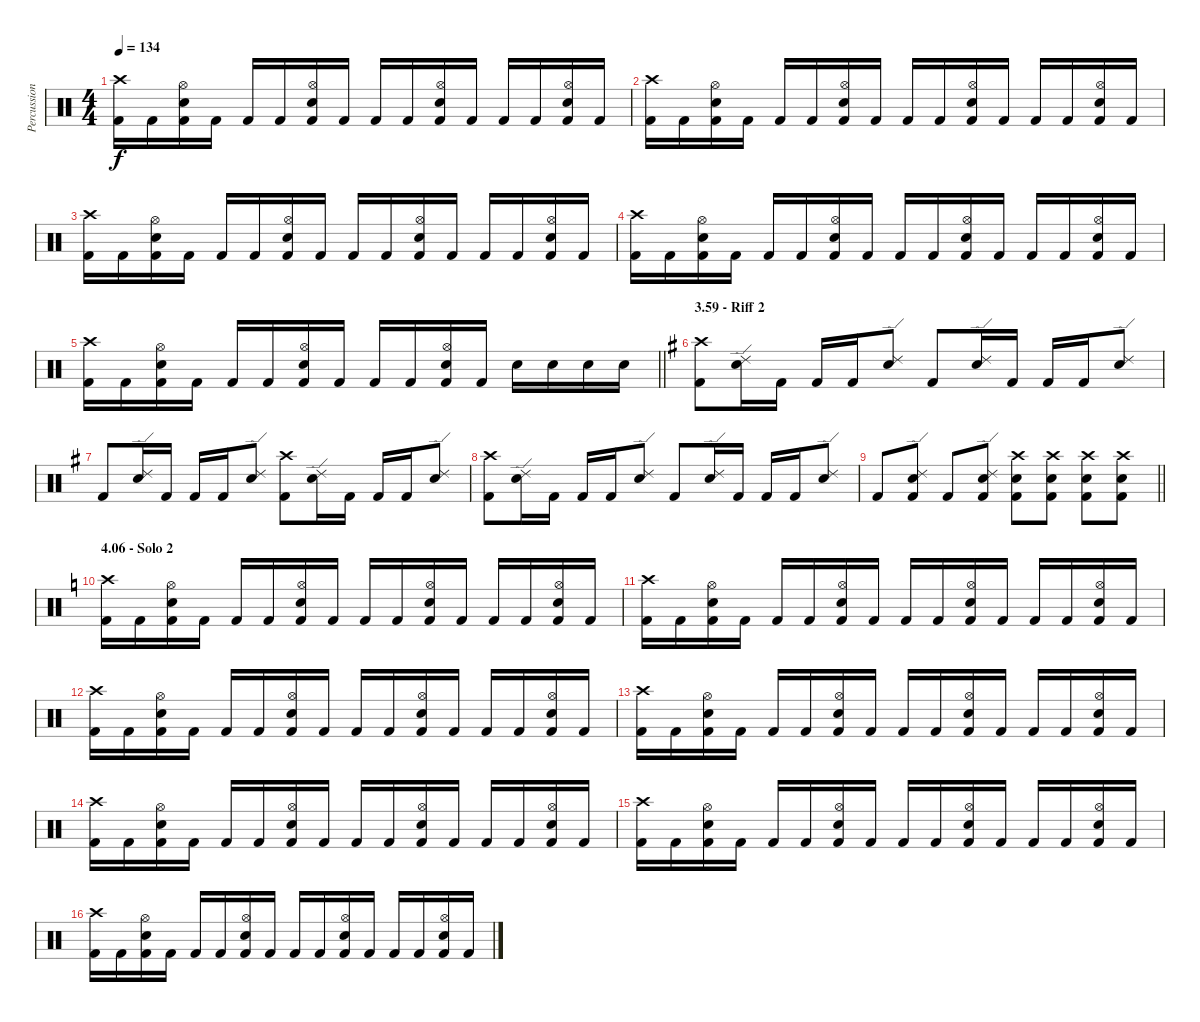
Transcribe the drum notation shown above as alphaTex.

\track ("Percussion" "Percussion") {instrument percussion}
\staff {score}
\articulation defaults
\ts (4 4)
\tempo 134
\clef neutral
\ks aminor
("Crash high (hit)" "Kick (hit) 2").16{dy f} "Kick (hit) 2".16 ("Hi-Hat (open)" "Electric Snare (hit)" "Kick (hit) 2").16 "Kick (hit) 2".16 "Kick (hit) 2".16 "Kick (hit) 2".16 ("Hi-Hat (open)" "Electric Snare (hit)" "Kick (hit) 2").16 "Kick (hit) 2".16 "Kick (hit) 2".16 "Kick (hit) 2".16 ("Hi-Hat (open)" "Electric Snare (hit)" "Kick (hit) 2").16 "Kick (hit) 2".16 "Kick (hit) 2".16 "Kick (hit) 2".16 ("Hi-Hat (open)" "Electric Snare (hit)" "Kick (hit) 2").16 "Kick (hit) 2".16 |
("Crash high (hit)" "Kick (hit) 2").16 "Kick (hit) 2".16 ("Hi-Hat (open)" "Electric Snare (hit)" "Kick (hit) 2").16 "Kick (hit) 2".16 "Kick (hit) 2".16 "Kick (hit) 2".16 ("Hi-Hat (open)" "Electric Snare (hit)" "Kick (hit) 2").16 "Kick (hit) 2".16 "Kick (hit) 2".16 "Kick (hit) 2".16 ("Hi-Hat (open)" "Electric Snare (hit)" "Kick (hit) 2").16 "Kick (hit) 2".16 "Kick (hit) 2".16 "Kick (hit) 2".16 ("Hi-Hat (open)" "Electric Snare (hit)" "Kick (hit) 2").16 "Kick (hit) 2".16 |
("Crash high (hit)" "Kick (hit) 2").16 "Kick (hit) 2".16 ("Hi-Hat (open)" "Electric Snare (hit)" "Kick (hit) 2").16 "Kick (hit) 2".16 "Kick (hit) 2".16 "Kick (hit) 2".16 ("Hi-Hat (open)" "Electric Snare (hit)" "Kick (hit) 2").16 "Kick (hit) 2".16 "Kick (hit) 2".16 "Kick (hit) 2".16 ("Hi-Hat (open)" "Electric Snare (hit)" "Kick (hit) 2").16 "Kick (hit) 2".16 "Kick (hit) 2".16 "Kick (hit) 2".16 ("Hi-Hat (open)" "Electric Snare (hit)" "Kick (hit) 2").16 "Kick (hit) 2".16 |
("Crash high (hit)" "Kick (hit) 2").16 "Kick (hit) 2".16 ("Hi-Hat (open)" "Electric Snare (hit)" "Kick (hit) 2").16 "Kick (hit) 2".16 "Kick (hit) 2".16 "Kick (hit) 2".16 ("Hi-Hat (open)" "Electric Snare (hit)" "Kick (hit) 2").16 "Kick (hit) 2".16 "Kick (hit) 2".16 "Kick (hit) 2".16 ("Hi-Hat (open)" "Electric Snare (hit)" "Kick (hit) 2").16 "Kick (hit) 2".16 "Kick (hit) 2".16 "Kick (hit) 2".16 ("Hi-Hat (open)" "Electric Snare (hit)" "Kick (hit) 2").16 "Kick (hit) 2".16 |
\barLineRight lightlight
("Crash high (hit)" "Kick (hit) 2").16 "Kick (hit) 2".16 ("Hi-Hat (open)" "Electric Snare (hit)" "Kick (hit) 2").16 "Kick (hit) 2".16 "Kick (hit) 2".16 "Kick (hit) 2".16 ("Hi-Hat (open)" "Electric Snare (hit)" "Kick (hit) 2").16 "Kick (hit) 2".16 "Kick (hit) 2".16 "Kick (hit) 2".16 ("Hi-Hat (open)" "Electric Snare (hit)" "Kick (hit) 2").16 "Kick (hit) 2".16 "Electric Snare (hit)".16 "Electric Snare (hit)".16 "Electric Snare (hit)".16 "Electric Snare (hit)".16 |
\section ("" "3.59 - Riff 2")
\ks eminor
("Crash high (hit)" "Kick (hit) 2").8 ("Ride (edge) 2" "Electric Snare (hit)").16 "Kick (hit) 2".16 "Kick (hit) 2".16 "Kick (hit) 2".16 ("Ride (edge) 2" "Electric Snare (hit)").8 "Kick (hit) 2".8 ("Ride (edge) 2" "Electric Snare (hit)").16 "Kick (hit) 2".16 "Kick (hit) 2".16 "Kick (hit) 2".16 ("Ride (edge) 2" "Electric Snare (hit)").8 |
"Kick (hit) 2".8 ("Ride (edge) 2" "Electric Snare (hit)").16 "Kick (hit) 2".16 "Kick (hit) 2".16 "Kick (hit) 2".16 ("Ride (edge) 2" "Electric Snare (hit)").8 ("Crash high (hit)" "Kick (hit) 2").8 ("Ride (edge) 2" "Electric Snare (hit)").16 "Kick (hit) 2".16 "Kick (hit) 2".16 "Kick (hit) 2".16 ("Ride (edge) 2" "Electric Snare (hit)").8 |
("Crash high (hit)" "Kick (hit) 2").8 ("Ride (edge) 2" "Electric Snare (hit)").16 "Kick (hit) 2".16 "Kick (hit) 2".16 "Kick (hit) 2".16 ("Ride (edge) 2" "Electric Snare (hit)").8 "Kick (hit) 2".8 ("Ride (edge) 2" "Electric Snare (hit)").16 "Kick (hit) 2".16 "Kick (hit) 2".16 "Kick (hit) 2".16 ("Ride (edge) 2" "Electric Snare (hit)").8 |
\barLineRight lightlight "Kick (hit) 2".8
("Ride (edge) 2" "Electric Snare (hit)" "Kick (hit) 2").8 "Kick (hit) 2".8 ("Ride (edge) 2" "Electric Snare (hit)" "Kick (hit) 2").8 ("Crash high (hit)" "Electric Snare (hit)" "Kick (hit) 2").8 ("Crash high (hit)" "Electric Snare (hit)" "Kick (hit) 2").8 ("Crash high (hit)" "Electric Snare (hit)" "Kick (hit) 2").8 ("Crash high (hit)" "Electric Snare (hit)" "Kick (hit) 2").8 |
\section ("" "4.06 - Solo 2")
\ks aminor
("Crash high (hit)" "Kick (hit) 2").16 "Kick (hit) 2".16 ("Hi-Hat (open)" "Electric Snare (hit)" "Kick (hit) 2").16 "Kick (hit) 2".16 "Kick (hit) 2".16 "Kick (hit) 2".16 ("Hi-Hat (open)" "Electric Snare (hit)" "Kick (hit) 2").16 "Kick (hit) 2".16 "Kick (hit) 2".16 "Kick (hit) 2".16 ("Hi-Hat (open)" "Electric Snare (hit)" "Kick (hit) 2").16 "Kick (hit) 2".16 "Kick (hit) 2".16 "Kick (hit) 2".16 ("Hi-Hat (open)" "Electric Snare (hit)" "Kick (hit) 2").16 "Kick (hit) 2".16 |
("Crash high (hit)" "Kick (hit) 2").16 "Kick (hit) 2".16 ("Hi-Hat (open)" "Electric Snare (hit)" "Kick (hit) 2").16 "Kick (hit) 2".16 "Kick (hit) 2".16 "Kick (hit) 2".16 ("Hi-Hat (open)" "Electric Snare (hit)" "Kick (hit) 2").16 "Kick (hit) 2".16 "Kick (hit) 2".16 "Kick (hit) 2".16 ("Hi-Hat (open)" "Electric Snare (hit)" "Kick (hit) 2").16 "Kick (hit) 2".16 "Kick (hit) 2".16 "Kick (hit) 2".16 ("Hi-Hat (open)" "Electric Snare (hit)" "Kick (hit) 2").16 "Kick (hit) 2".16 |
("Crash high (hit)" "Kick (hit) 2").16 "Kick (hit) 2".16 ("Hi-Hat (open)" "Electric Snare (hit)" "Kick (hit) 2").16 "Kick (hit) 2".16 "Kick (hit) 2".16 "Kick (hit) 2".16 ("Hi-Hat (open)" "Electric Snare (hit)" "Kick (hit) 2").16 "Kick (hit) 2".16 "Kick (hit) 2".16 "Kick (hit) 2".16 ("Hi-Hat (open)" "Electric Snare (hit)" "Kick (hit) 2").16 "Kick (hit) 2".16 "Kick (hit) 2".16 "Kick (hit) 2".16 ("Hi-Hat (open)" "Electric Snare (hit)" "Kick (hit) 2").16 "Kick (hit) 2".16 |
("Crash high (hit)" "Kick (hit) 2").16 "Kick (hit) 2".16 ("Hi-Hat (open)" "Electric Snare (hit)" "Kick (hit) 2").16 "Kick (hit) 2".16 "Kick (hit) 2".16 "Kick (hit) 2".16 ("Hi-Hat (open)" "Electric Snare (hit)" "Kick (hit) 2").16 "Kick (hit) 2".16 "Kick (hit) 2".16 "Kick (hit) 2".16 ("Hi-Hat (open)" "Electric Snare (hit)" "Kick (hit) 2").16 "Kick (hit) 2".16 "Kick (hit) 2".16 "Kick (hit) 2".16 ("Hi-Hat (open)" "Electric Snare (hit)" "Kick (hit) 2").16 "Kick (hit) 2".16 |
("Crash high (hit)" "Kick (hit) 2").16 "Kick (hit) 2".16 ("Hi-Hat (open)" "Electric Snare (hit)" "Kick (hit) 2").16 "Kick (hit) 2".16 "Kick (hit) 2".16 "Kick (hit) 2".16 ("Hi-Hat (open)" "Electric Snare (hit)" "Kick (hit) 2").16 "Kick (hit) 2".16 "Kick (hit) 2".16 "Kick (hit) 2".16 ("Hi-Hat (open)" "Electric Snare (hit)" "Kick (hit) 2").16 "Kick (hit) 2".16 "Kick (hit) 2".16 "Kick (hit) 2".16 ("Hi-Hat (open)" "Electric Snare (hit)" "Kick (hit) 2").16 "Kick (hit) 2".16 |
("Crash high (hit)" "Kick (hit) 2").16 "Kick (hit) 2".16 ("Hi-Hat (open)" "Electric Snare (hit)" "Kick (hit) 2").16 "Kick (hit) 2".16 "Kick (hit) 2".16 "Kick (hit) 2".16 ("Hi-Hat (open)" "Electric Snare (hit)" "Kick (hit) 2").16 "Kick (hit) 2".16 "Kick (hit) 2".16 "Kick (hit) 2".16 ("Hi-Hat (open)" "Electric Snare (hit)" "Kick (hit) 2").16 "Kick (hit) 2".16 "Kick (hit) 2".16 "Kick (hit) 2".16 ("Hi-Hat (open)" "Electric Snare (hit)" "Kick (hit) 2").16 "Kick (hit) 2".16 |
("Crash high (hit)" "Kick (hit) 2").16 "Kick (hit) 2".16 ("Hi-Hat (open)" "Electric Snare (hit)" "Kick (hit) 2").16 "Kick (hit) 2".16 "Kick (hit) 2".16 "Kick (hit) 2".16 ("Hi-Hat (open)" "Electric Snare (hit)" "Kick (hit) 2").16 "Kick (hit) 2".16 "Kick (hit) 2".16 "Kick (hit) 2".16 ("Hi-Hat (open)" "Electric Snare (hit)" "Kick (hit) 2").16 "Kick (hit) 2".16 "Kick (hit) 2".16 "Kick (hit) 2".16 ("Hi-Hat (open)" "Electric Snare (hit)" "Kick (hit) 2").16 "Kick (hit) 2".16
